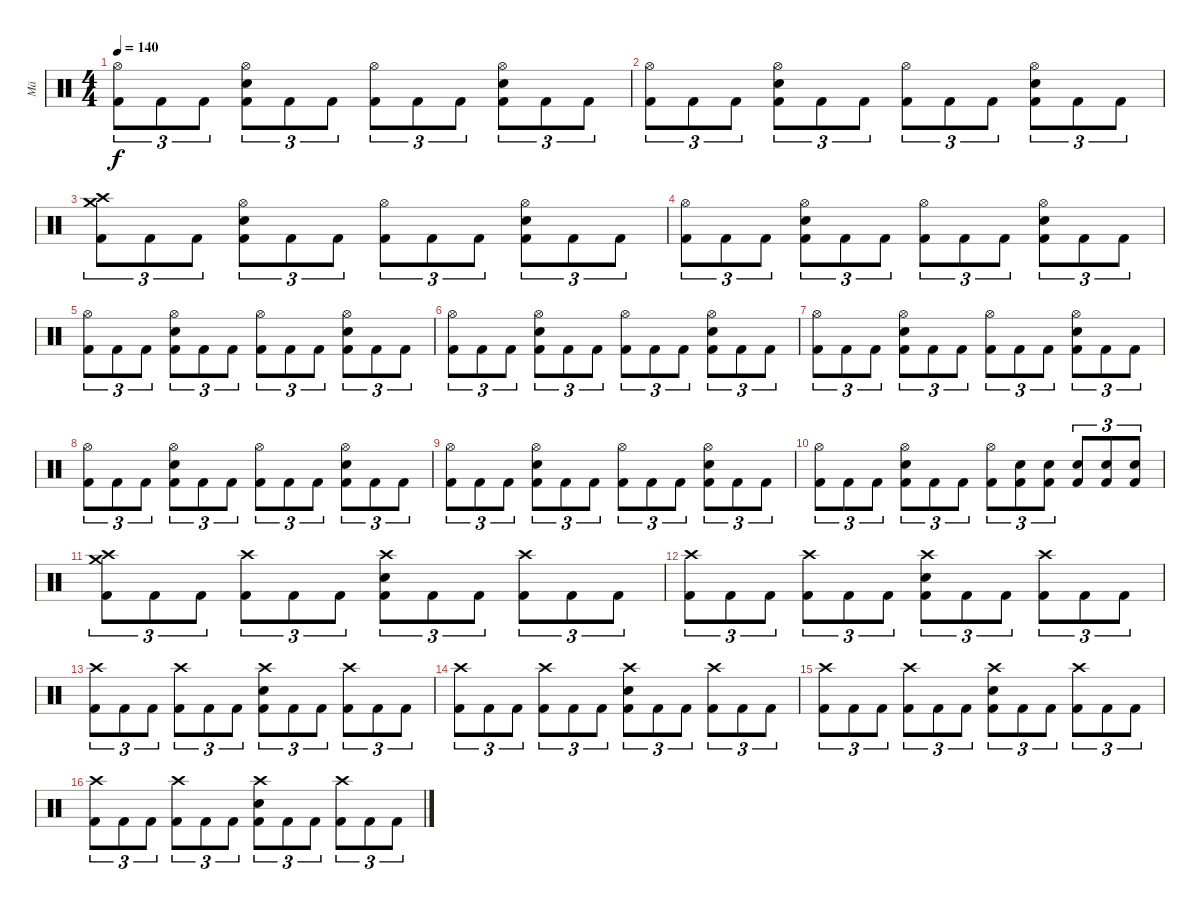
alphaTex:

\track ("Mä" "Mä") {instrument percussion}
\staff {score}
\articulation defaults
\ts (4 4)
\tempo 140
\clef neutral
\ks c
("Hi-Hat (open)" "Kick (hit) 2").8{tu (3 2) dy f} "Kick (hit) 2".8{tu (3 2)} "Kick (hit) 2".8{tu (3 2)} ("Hi-Hat (open)" "Snare (hit) 2" "Kick (hit) 2").8{tu (3 2)} "Kick (hit) 2".8{tu (3 2)} "Kick (hit) 2".8{tu (3 2)} ("Hi-Hat (open)" "Kick (hit) 2").8{tu (3 2)} "Kick (hit) 2".8{tu (3 2)} "Kick (hit) 2".8{tu (3 2)} ("Hi-Hat (open)" "Snare (hit) 2" "Kick (hit) 2").8{tu (3 2)} "Kick (hit) 2".8{tu (3 2)} "Kick (hit) 2".8{tu (3 2)} |
("Hi-Hat (open)" "Kick (hit) 2").8{tu (3 2)} "Kick (hit) 2".8{tu (3 2)} "Kick (hit) 2".8{tu (3 2)} ("Hi-Hat (open)" "Snare (hit) 2" "Kick (hit) 2").8{tu (3 2)} "Kick (hit) 2".8{tu (3 2)} "Kick (hit) 2".8{tu (3 2)} ("Hi-Hat (open)" "Kick (hit) 2").8{tu (3 2)} "Kick (hit) 2".8{tu (3 2)} "Kick (hit) 2".8{tu (3 2)} ("Hi-Hat (open)" "Snare (hit) 2" "Kick (hit) 2").8{tu (3 2)} "Kick (hit) 2".8{tu (3 2)} "Kick (hit) 2".8{tu (3 2)} |
("Crash medium (hit)" "Crash high (hit)" "Kick (hit) 2").8{tu (3 2)} "Kick (hit) 2".8{tu (3 2)} "Kick (hit) 2".8{tu (3 2)} ("Hi-Hat (open)" "Snare (hit) 2" "Kick (hit) 2").8{tu (3 2)} "Kick (hit) 2".8{tu (3 2)} "Kick (hit) 2".8{tu (3 2)} ("Hi-Hat (open)" "Kick (hit) 2").8{tu (3 2)} "Kick (hit) 2".8{tu (3 2)} "Kick (hit) 2".8{tu (3 2)} ("Hi-Hat (open)" "Snare (hit) 2" "Kick (hit) 2").8{tu (3 2)} "Kick (hit) 2".8{tu (3 2)} "Kick (hit) 2".8{tu (3 2)} |
("Hi-Hat (open)" "Kick (hit) 2").8{tu (3 2)} "Kick (hit) 2".8{tu (3 2)} "Kick (hit) 2".8{tu (3 2)} ("Hi-Hat (open)" "Snare (hit) 2" "Kick (hit) 2").8{tu (3 2)} "Kick (hit) 2".8{tu (3 2)} "Kick (hit) 2".8{tu (3 2)} ("Hi-Hat (open)" "Kick (hit) 2").8{tu (3 2)} "Kick (hit) 2".8{tu (3 2)} "Kick (hit) 2".8{tu (3 2)} ("Hi-Hat (open)" "Snare (hit) 2" "Kick (hit) 2").8{tu (3 2)} "Kick (hit) 2".8{tu (3 2)} "Kick (hit) 2".8{tu (3 2)} |
("Hi-Hat (open)" "Kick (hit) 2").8{tu (3 2)} "Kick (hit) 2".8{tu (3 2)} "Kick (hit) 2".8{tu (3 2)} ("Hi-Hat (open)" "Snare (hit) 2" "Kick (hit) 2").8{tu (3 2)} "Kick (hit) 2".8{tu (3 2)} "Kick (hit) 2".8{tu (3 2)} ("Hi-Hat (open)" "Kick (hit) 2").8{tu (3 2)} "Kick (hit) 2".8{tu (3 2)} "Kick (hit) 2".8{tu (3 2)} ("Hi-Hat (open)" "Snare (hit) 2" "Kick (hit) 2").8{tu (3 2)} "Kick (hit) 2".8{tu (3 2)} "Kick (hit) 2".8{tu (3 2)} |
("Hi-Hat (open)" "Kick (hit) 2").8{tu (3 2)} "Kick (hit) 2".8{tu (3 2)} "Kick (hit) 2".8{tu (3 2)} ("Hi-Hat (open)" "Snare (hit) 2" "Kick (hit) 2").8{tu (3 2)} "Kick (hit) 2".8{tu (3 2)} "Kick (hit) 2".8{tu (3 2)} ("Hi-Hat (open)" "Kick (hit) 2").8{tu (3 2)} "Kick (hit) 2".8{tu (3 2)} "Kick (hit) 2".8{tu (3 2)} ("Hi-Hat (open)" "Snare (hit) 2" "Kick (hit) 2").8{tu (3 2)} "Kick (hit) 2".8{tu (3 2)} "Kick (hit) 2".8{tu (3 2)} |
("Hi-Hat (open)" "Kick (hit) 2").8{tu (3 2)} "Kick (hit) 2".8{tu (3 2)} "Kick (hit) 2".8{tu (3 2)} ("Hi-Hat (open)" "Snare (hit) 2" "Kick (hit) 2").8{tu (3 2)} "Kick (hit) 2".8{tu (3 2)} "Kick (hit) 2".8{tu (3 2)} ("Hi-Hat (open)" "Kick (hit) 2").8{tu (3 2)} "Kick (hit) 2".8{tu (3 2)} "Kick (hit) 2".8{tu (3 2)} ("Hi-Hat (open)" "Snare (hit) 2" "Kick (hit) 2").8{tu (3 2)} "Kick (hit) 2".8{tu (3 2)} "Kick (hit) 2".8{tu (3 2)} |
("Hi-Hat (open)" "Kick (hit) 2").8{tu (3 2)} "Kick (hit) 2".8{tu (3 2)} "Kick (hit) 2".8{tu (3 2)} ("Hi-Hat (open)" "Snare (hit) 2" "Kick (hit) 2").8{tu (3 2)} "Kick (hit) 2".8{tu (3 2)} "Kick (hit) 2".8{tu (3 2)} ("Hi-Hat (open)" "Kick (hit) 2").8{tu (3 2)} "Kick (hit) 2".8{tu (3 2)} "Kick (hit) 2".8{tu (3 2)} ("Hi-Hat (open)" "Snare (hit) 2" "Kick (hit) 2").8{tu (3 2)} "Kick (hit) 2".8{tu (3 2)} "Kick (hit) 2".8{tu (3 2)} |
("Hi-Hat (open)" "Kick (hit) 2").8{tu (3 2)} "Kick (hit) 2".8{tu (3 2)} "Kick (hit) 2".8{tu (3 2)} ("Hi-Hat (open)" "Snare (hit) 2" "Kick (hit) 2").8{tu (3 2)} "Kick (hit) 2".8{tu (3 2)} "Kick (hit) 2".8{tu (3 2)} ("Hi-Hat (open)" "Kick (hit) 2").8{tu (3 2)} "Kick (hit) 2".8{tu (3 2)} "Kick (hit) 2".8{tu (3 2)} ("Hi-Hat (open)" "Snare (hit) 2" "Kick (hit) 2").8{tu (3 2)} "Kick (hit) 2".8{tu (3 2)} "Kick (hit) 2".8{tu (3 2)} |
("Hi-Hat (open)" "Kick (hit) 2").8{tu (3 2)} "Kick (hit) 2".8{tu (3 2)} "Kick (hit) 2".8{tu (3 2)} ("Hi-Hat (open)" "Snare (hit) 2" "Kick (hit) 2").8{tu (3 2)} "Kick (hit) 2".8{tu (3 2)} "Kick (hit) 2".8{tu (3 2)} ("Hi-Hat (open)" "Kick (hit) 2").8{tu (3 2)} ("Snare (hit) 2" "Kick (hit) 2").8{tu (3 2)} ("Snare (hit) 2" "Kick (hit) 2").8{tu (3 2)} ("Snare (hit) 2" "Kick (hit) 2").8{tu (3 2)} ("Snare (hit) 2" "Kick (hit) 2").8{tu (3 2)} ("Snare (hit) 2" "Kick (hit) 2").8{tu (3 2)} |
("Crash medium (hit)" "Crash high (hit)" "Kick (hit) 2").8{tu (3 2)} "Kick (hit) 2".8{tu (3 2)} "Kick (hit) 2".8{tu (3 2)} ("Crash high (hit)" "Kick (hit) 2").8{tu (3 2)} "Kick (hit) 2".8{tu (3 2)} "Kick (hit) 2".8{tu (3 2)} ("Crash high (hit)" "Snare (hit) 2" "Kick (hit) 2").8{tu (3 2)} "Kick (hit) 2".8{tu (3 2)} "Kick (hit) 2".8{tu (3 2)} ("Crash high (hit)" "Kick (hit) 2").8{tu (3 2)} "Kick (hit) 2".8{tu (3 2)} "Kick (hit) 2".8{tu (3 2)} |
("Crash high (hit)" "Kick (hit) 2").8{tu (3 2)} "Kick (hit) 2".8{tu (3 2)} "Kick (hit) 2".8{tu (3 2)} ("Crash high (hit)" "Kick (hit) 2").8{tu (3 2)} "Kick (hit) 2".8{tu (3 2)} "Kick (hit) 2".8{tu (3 2)} ("Crash high (hit)" "Snare (hit) 2" "Kick (hit) 2").8{tu (3 2)} "Kick (hit) 2".8{tu (3 2)} "Kick (hit) 2".8{tu (3 2)} ("Crash high (hit)" "Kick (hit) 2").8{tu (3 2)} "Kick (hit) 2".8{tu (3 2)} "Kick (hit) 2".8{tu (3 2)} |
("Crash high (hit)" "Kick (hit) 2").8{tu (3 2)} "Kick (hit) 2".8{tu (3 2)} "Kick (hit) 2".8{tu (3 2)} ("Crash high (hit)" "Kick (hit) 2").8{tu (3 2)} "Kick (hit) 2".8{tu (3 2)} "Kick (hit) 2".8{tu (3 2)} ("Crash high (hit)" "Snare (hit) 2" "Kick (hit) 2").8{tu (3 2)} "Kick (hit) 2".8{tu (3 2)} "Kick (hit) 2".8{tu (3 2)} ("Crash high (hit)" "Kick (hit) 2").8{tu (3 2)} "Kick (hit) 2".8{tu (3 2)} "Kick (hit) 2".8{tu (3 2)} |
("Crash high (hit)" "Kick (hit) 2").8{tu (3 2)} "Kick (hit) 2".8{tu (3 2)} "Kick (hit) 2".8{tu (3 2)} ("Crash high (hit)" "Kick (hit) 2").8{tu (3 2)} "Kick (hit) 2".8{tu (3 2)} "Kick (hit) 2".8{tu (3 2)} ("Crash high (hit)" "Snare (hit) 2" "Kick (hit) 2").8{tu (3 2)} "Kick (hit) 2".8{tu (3 2)} "Kick (hit) 2".8{tu (3 2)} ("Crash high (hit)" "Kick (hit) 2").8{tu (3 2)} "Kick (hit) 2".8{tu (3 2)} "Kick (hit) 2".8{tu (3 2)} |
("Crash high (hit)" "Kick (hit) 2").8{tu (3 2)} "Kick (hit) 2".8{tu (3 2)} "Kick (hit) 2".8{tu (3 2)} ("Crash high (hit)" "Kick (hit) 2").8{tu (3 2)} "Kick (hit) 2".8{tu (3 2)} "Kick (hit) 2".8{tu (3 2)} ("Crash high (hit)" "Snare (hit) 2" "Kick (hit) 2").8{tu (3 2)} "Kick (hit) 2".8{tu (3 2)} "Kick (hit) 2".8{tu (3 2)} ("Crash high (hit)" "Kick (hit) 2").8{tu (3 2)} "Kick (hit) 2".8{tu (3 2)} "Kick (hit) 2".8{tu (3 2)} |
("Crash high (hit)" "Kick (hit) 2").8{tu (3 2)} "Kick (hit) 2".8{tu (3 2)} "Kick (hit) 2".8{tu (3 2)} ("Crash high (hit)" "Kick (hit) 2").8{tu (3 2)} "Kick (hit) 2".8{tu (3 2)} "Kick (hit) 2".8{tu (3 2)} ("Crash high (hit)" "Snare (hit) 2" "Kick (hit) 2").8{tu (3 2)} "Kick (hit) 2".8{tu (3 2)} "Kick (hit) 2".8{tu (3 2)} ("Crash high (hit)" "Kick (hit) 2").8{tu (3 2)} "Kick (hit) 2".8{tu (3 2)} "Kick (hit) 2".8{tu (3 2)}
